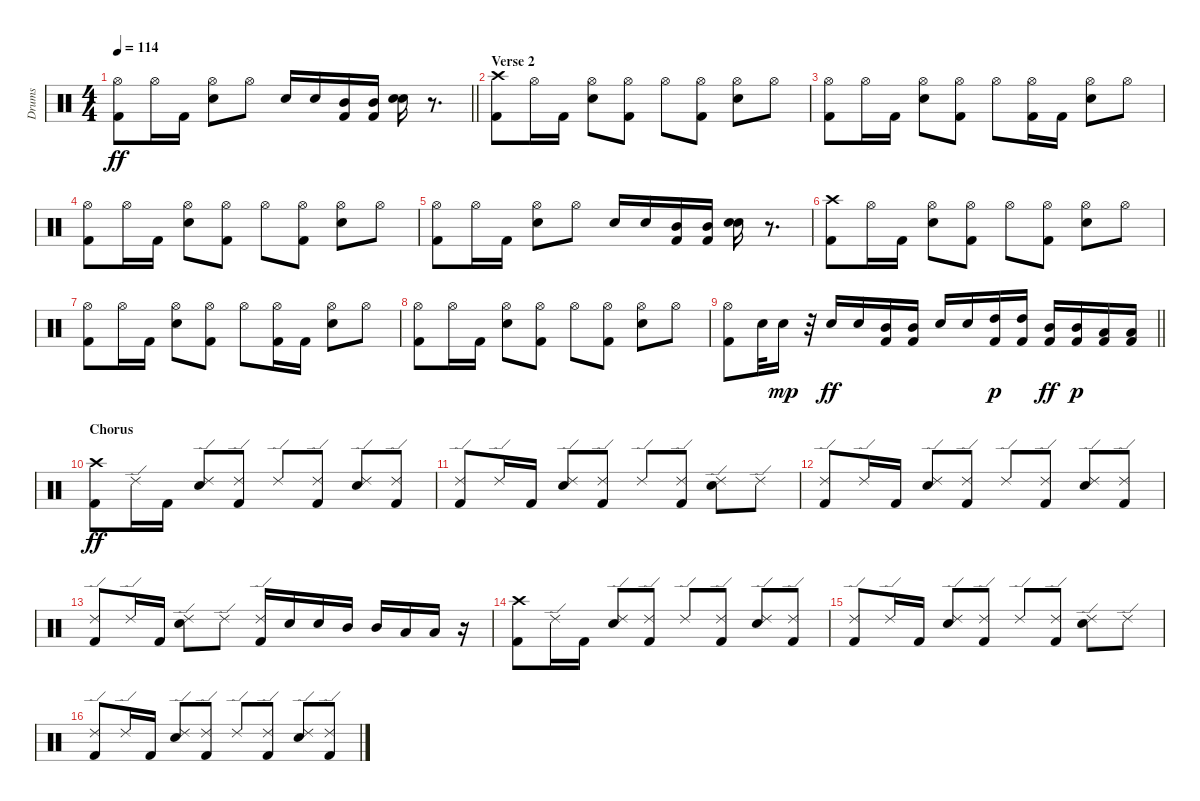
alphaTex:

\track ("Drums               " "Drums     ") {instrument percussion}
\staff {score}
\articulation defaults
\ts (4 4)
\tempo 114
\clef neutral
\barLineRight lightlight
\ks c
("Kick (hit) 2" "Hi-Hat (open)").8{dy ff} "Hi-Hat (open)".16 "Kick (hit) 2".16 ("Hi-Hat (open)" "Electric Snare (hit)").8 "Hi-Hat (open)".8 "Electric Snare (hit)".16 "Electric Snare (hit)".16 ("Kick (hit) 2" "Mid Tom (hit)").16 ("Kick (hit) 2" "Mid Tom (hit)").16 ("Metronome (bell)" "Electric Snare (hit)").16 r.8{d} |
\section ("" "Verse 2")
("Kick (hit) 2" "Crash high (hit)").8 "Hi-Hat (open)".16 "Kick (hit) 2".16 ("Hi-Hat (open)" "Electric Snare (hit)").8 ("Kick (hit) 2" "Hi-Hat (open)").8 "Hi-Hat (open)".8 ("Kick (hit) 2" "Hi-Hat (open)").8 ("Hi-Hat (open)" "Electric Snare (hit)").8 "Hi-Hat (open)".8 |
("Kick (hit) 2" "Hi-Hat (open)").8 "Hi-Hat (open)".16 "Kick (hit) 2".16 ("Hi-Hat (open)" "Electric Snare (hit)").8 ("Kick (hit) 2" "Hi-Hat (open)").8 "Hi-Hat (open)".8 ("Kick (hit) 2" "Hi-Hat (open)").16 "Kick (hit) 2".16 ("Hi-Hat (open)" "Electric Snare (hit)").8 "Hi-Hat (open)".8 |
("Kick (hit) 2" "Hi-Hat (open)").8 "Hi-Hat (open)".16 "Kick (hit) 2".16 ("Hi-Hat (open)" "Electric Snare (hit)").8 ("Kick (hit) 2" "Hi-Hat (open)").8 "Hi-Hat (open)".8 ("Kick (hit) 2" "Hi-Hat (open)").8 ("Hi-Hat (open)" "Electric Snare (hit)").8 "Hi-Hat (open)".8 |
("Kick (hit) 2" "Hi-Hat (open)").8 "Hi-Hat (open)".16 "Kick (hit) 2".16 ("Hi-Hat (open)" "Electric Snare (hit)").8 "Hi-Hat (open)".8 "Electric Snare (hit)".16 "Electric Snare (hit)".16 ("Kick (hit) 2" "Mid Tom (hit)").16 ("Kick (hit) 2" "Mid Tom (hit)").16 ("Metronome (bell)" "Electric Snare (hit)").16 r.8{d} |
("Kick (hit) 2" "Crash high (hit)").8 "Hi-Hat (open)".16 "Kick (hit) 2".16 ("Hi-Hat (open)" "Electric Snare (hit)").8 ("Kick (hit) 2" "Hi-Hat (open)").8 "Hi-Hat (open)".8 ("Kick (hit) 2" "Hi-Hat (open)").8 ("Hi-Hat (open)" "Electric Snare (hit)").8 "Hi-Hat (open)".8 |
("Kick (hit) 2" "Hi-Hat (open)").8 "Hi-Hat (open)".16 "Kick (hit) 2".16 ("Hi-Hat (open)" "Electric Snare (hit)").8 ("Kick (hit) 2" "Hi-Hat (open)").8 "Hi-Hat (open)".8 ("Kick (hit) 2" "Hi-Hat (open)").16 "Kick (hit) 2".16 ("Hi-Hat (open)" "Electric Snare (hit)").8 "Hi-Hat (open)".8 |
("Kick (hit) 2" "Hi-Hat (open)").8 "Hi-Hat (open)".16 "Kick (hit) 2".16 ("Hi-Hat (open)" "Electric Snare (hit)").8 ("Kick (hit) 2" "Hi-Hat (open)").8 "Hi-Hat (open)".8 ("Kick (hit) 2" "Hi-Hat (open)").8 ("Hi-Hat (open)" "Electric Snare (hit)").8 "Hi-Hat (open)".8 |
\barLineRight lightlight
("Kick (hit) 2" "Hi-Hat (open)").8 "Electric Snare (hit)".32 "Metronome (bell)".16{dy mp} r.32 "Electric Snare (hit)".16{dy ff} "Electric Snare (hit)".16 ("Kick (hit) 2" "Mid Tom (hit)").16 ("Kick (hit) 2" "Mid Tom (hit)").16 "Electric Snare (hit)".16 "Electric Snare (hit)".16 ("High Tom (hit)" "Kick (hit) 2").16{dy p} ("High Tom (hit)" "Kick (hit) 2").16 ("Kick (hit) 2" "Mid Tom (hit)").16{dy ff} ("Mid Tom (hit)" "Kick (hit) 2").16{dy p} ("Low Tom (hit)" "Kick (hit) 2").16 ("Low Tom (hit)" "Kick (hit) 2").16 |
\section ("" "Chorus")
("Kick (hit) 2" "Crash high (hit)").8{dy ff} "Ride (edge) 2".16 "Kick (hit) 2".16 ("Electric Snare (hit)" "Ride (edge) 2").8 ("Kick (hit) 2" "Ride (edge) 2").8 "Ride (edge) 2".8 ("Kick (hit) 2" "Ride (edge) 2").8 ("Electric Snare (hit)" "Ride (edge) 2").8 ("Kick (hit) 2" "Ride (edge) 2").8 |
("Kick (hit) 2" "Ride (edge) 2").8 "Ride (edge) 2".16 "Kick (hit) 2".16 ("Electric Snare (hit)" "Ride (edge) 2").8 ("Kick (hit) 2" "Ride (edge) 2").8 "Ride (edge) 2".8 ("Kick (hit) 2" "Ride (edge) 2").8 ("Electric Snare (hit)" "Ride (edge) 2").8 "Ride (edge) 2".8 |
("Kick (hit) 2" "Ride (edge) 2").8 "Ride (edge) 2".16 "Kick (hit) 2".16 ("Electric Snare (hit)" "Ride (edge) 2").8 ("Kick (hit) 2" "Ride (edge) 2").8 "Ride (edge) 2".8 ("Kick (hit) 2" "Ride (edge) 2").8 ("Electric Snare (hit)" "Ride (edge) 2").8 ("Kick (hit) 2" "Ride (edge) 2").8 |
("Kick (hit) 2" "Ride (edge) 2").8 "Ride (edge) 2".16 "Kick (hit) 2".16 ("Electric Snare (hit)" "Ride (edge) 2").8 "Ride (edge) 2".8 ("Ride (edge) 2" "Kick (hit) 2").16 "Electric Snare (hit)".16 "Electric Snare (hit)".16 "Mid Tom (hit)".16 "Mid Tom (hit)".16 "Low Tom (hit)".16 "Low Tom (hit)".16 r.16 |
("Kick (hit) 2" "Crash high (hit)").8 "Ride (edge) 2".16 "Kick (hit) 2".16 ("Electric Snare (hit)" "Ride (edge) 2").8 ("Kick (hit) 2" "Ride (edge) 2").8 "Ride (edge) 2".8 ("Kick (hit) 2" "Ride (edge) 2").8 ("Ride (edge) 2" "Electric Snare (hit)").8 ("Kick (hit) 2" "Ride (edge) 2").8 |
("Kick (hit) 2" "Ride (edge) 2").8 "Ride (edge) 2".16 "Kick (hit) 2".16 ("Electric Snare (hit)" "Ride (edge) 2").8 ("Kick (hit) 2" "Ride (edge) 2").8 "Ride (edge) 2".8 ("Ride (edge) 2" "Kick (hit) 2").8 ("Ride (edge) 2" "Electric Snare (hit)").8 "Ride (edge) 2".8 |
("Kick (hit) 2" "Ride (edge) 2").8 "Ride (edge) 2".16 "Kick (hit) 2".16 ("Electric Snare (hit)" "Ride (edge) 2").8 ("Kick (hit) 2" "Ride (edge) 2").8 "Ride (edge) 2".8 ("Kick (hit) 2" "Ride (edge) 2").8 ("Ride (edge) 2" "Electric Snare (hit)").8 ("Kick (hit) 2" "Ride (edge) 2").8
